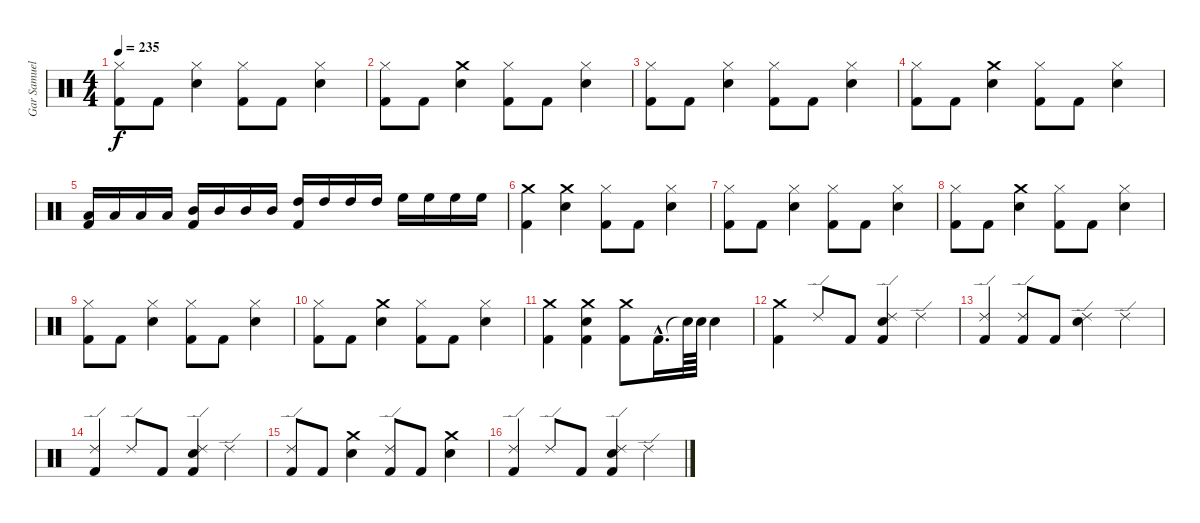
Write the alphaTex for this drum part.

\track ("Gar Samuelson (Drums)" "Gar Samuel") {instrument percussion}
\staff {score}
\articulation defaults
\ts (4 4)
\tempo 235
\clef neutral
\ks c
("Kick (hit) 2" "Hi-Hat (closed)").8{dy f} "Kick (hit) 2".8 ("Snare (hit) 2" "Hi-Hat (closed)").4 ("Kick (hit) 2" "Hi-Hat (closed)").8 "Kick (hit) 2".8 ("Snare (hit) 2" "Hi-Hat (closed)").4 |
("Kick (hit) 2" "Hi-Hat (closed)").8 "Kick (hit) 2".8 ("Crash medium (hit)" "Snare (hit) 2").4 ("Kick (hit) 2" "Hi-Hat (closed)").8 "Kick (hit) 2".8 ("Snare (hit) 2" "Hi-Hat (closed)").4 |
("Kick (hit) 2" "Hi-Hat (closed)").8 "Kick (hit) 2".8 ("Snare (hit) 2" "Hi-Hat (closed)").4 ("Kick (hit) 2" "Hi-Hat (closed)").8 "Kick (hit) 2".8 ("Snare (hit) 2" "Hi-Hat (closed)").4 |
("Kick (hit) 2" "Hi-Hat (closed)").8 "Kick (hit) 2".8 ("Crash medium (hit)" "Snare (hit) 2").4 ("Kick (hit) 2" "Hi-Hat (closed)").8 "Kick (hit) 2".8 ("Snare (hit) 2" "Hi-Hat (closed)").4 |
("Low Tom (hit)" "Kick (hit) 2").16 "Low Tom (hit)".16 "Low Tom (hit)".16 "Low Tom (hit)".16 ("Mid Tom (hit)" "Kick (hit) 2").16 "Mid Tom (hit)".16 "Mid Tom (hit)".16 "Mid Tom (hit)".16 ("High Tom (hit)" "Kick (hit) 2").16 "High Tom (hit)".16 "High Tom (hit)".16 "High Tom (hit)".16 "High Floor Tom (hit)".16 "High Floor Tom (hit)".16 "High Floor Tom (hit)".16 "High Floor Tom (hit)".16 |
("Kick (hit) 2" "Crash medium (hit)").4 ("Snare (hit) 2" "Crash medium (hit)").4 ("Hi-Hat (closed)" "Kick (hit) 2").8 "Kick (hit) 2".8 ("Hi-Hat (closed)" "Snare (hit) 2").4 |
("Kick (hit) 2" "Hi-Hat (closed)").8 "Kick (hit) 2".8 ("Snare (hit) 2" "Hi-Hat (closed)").4 ("Kick (hit) 2" "Hi-Hat (closed)").8 "Kick (hit) 2".8 ("Snare (hit) 2" "Hi-Hat (closed)").4 |
("Kick (hit) 2" "Hi-Hat (closed)").8 "Kick (hit) 2".8 ("Crash medium (hit)" "Snare (hit) 2").4 ("Kick (hit) 2" "Hi-Hat (closed)").8 "Kick (hit) 2".8 ("Snare (hit) 2" "Hi-Hat (closed)").4 |
("Kick (hit) 2" "Hi-Hat (closed)").8 "Kick (hit) 2".8 ("Snare (hit) 2" "Hi-Hat (closed)").4 ("Kick (hit) 2" "Hi-Hat (closed)").8 "Kick (hit) 2".8 ("Snare (hit) 2" "Hi-Hat (closed)").4 |
("Kick (hit) 2" "Hi-Hat (closed)").8 "Kick (hit) 2".8 ("Crash medium (hit)" "Snare (hit) 2").4 ("Kick (hit) 2" "Hi-Hat (closed)").8 "Kick (hit) 2".8 ("Snare (hit) 2" "Hi-Hat (closed)").4 |
("Kick (hit) 2" "Crash medium (hit)").4 ("Kick (hit) 2" "Snare (hit) 2" "Crash medium (hit)").4 ("Kick (hit) 2" "Crash medium (hit)").8 "Kick (hit) 2"{hac}.16{d} "Snare (hit)"{t}.64 "Snare (hit) 2".64 "Snare (hit) 2".4 |
("Kick (hit) 2" "Crash medium (hit)").4 "Ride (edge) 2".8 "Kick (hit) 2".8 ("Kick (hit) 2" "Snare (hit) 2" "Ride (edge) 2").4 "Ride (edge) 2".4 |
("Kick (hit) 2" "Ride (edge) 2").4 ("Ride (edge) 2" "Kick (hit) 2").8 "Kick (hit) 2".8 ("Snare (hit) 2" "Ride (edge) 2").4 "Ride (edge) 2".4 |
("Kick (hit) 2" "Ride (edge) 2").4 "Ride (edge) 2".8 "Kick (hit) 2".8 ("Ride (edge) 2" "Snare (hit) 2" "Kick (hit) 2").4 "Ride (edge) 2".4 |
("Ride (edge) 2" "Kick (hit) 2").8 "Kick (hit) 2".8 ("Snare (hit) 2" "Crash medium (hit)").4 ("Ride (edge) 2" "Kick (hit) 2").8 "Kick (hit) 2".8 ("Snare (hit) 2" "Crash medium (hit)").4 |
("Ride (edge) 2" "Kick (hit) 2").4 "Ride (edge) 2".8 "Kick (hit) 2".8 ("Ride (edge) 2" "Snare (hit) 2" "Kick (hit) 2").4 "Ride (edge) 2".4
